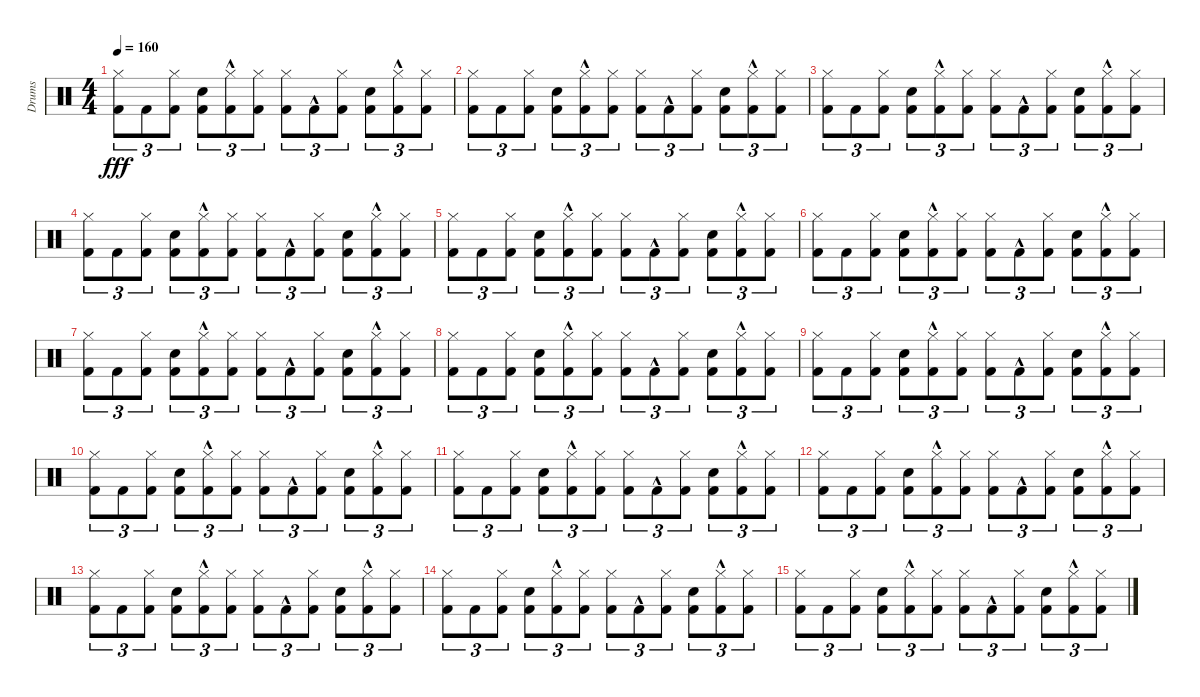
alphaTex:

\track ("Drums" "Drums") {instrument percussion}
\staff {score}
\articulation defaults
\ts (4 4)
\tempo 160
\clef neutral
\ks c
("Kick (hit) 2" "Hi-Hat (closed)").8{tu (3 2) dy fff} "Kick (hit) 2".8{tu (3 2)} ("Kick (hit) 2" "Hi-Hat (closed)").8{tu (3 2)} ("Kick (hit) 2" "Snare (hit) 2").8{tu (3 2)} ("Kick (hit) 2"{hac} "Hi-Hat (closed)"{hac}).8{tu (3 2)} ("Kick (hit) 2" "Hi-Hat (closed)").8{tu (3 2)} ("Kick (hit) 2" "Hi-Hat (closed)").8{tu (3 2)} "Kick (hit) 2"{hac}.8{tu (3 2)} ("Kick (hit) 2" "Hi-Hat (closed)").8{tu (3 2)} ("Kick (hit) 2" "Snare (hit) 2").8{tu (3 2)} ("Kick (hit) 2"{hac} "Hi-Hat (closed)"{hac}).8{tu (3 2)} ("Kick (hit) 2" "Hi-Hat (closed)").8{tu (3 2)} |
("Kick (hit) 2" "Hi-Hat (closed)").8{tu (3 2)} "Kick (hit) 2".8{tu (3 2)} ("Kick (hit) 2" "Hi-Hat (closed)").8{tu (3 2)} ("Kick (hit) 2" "Snare (hit) 2").8{tu (3 2)} ("Kick (hit) 2"{hac} "Hi-Hat (closed)"{hac}).8{tu (3 2)} ("Kick (hit) 2" "Hi-Hat (closed)").8{tu (3 2)} ("Kick (hit) 2" "Hi-Hat (closed)").8{tu (3 2)} "Kick (hit) 2"{hac}.8{tu (3 2)} ("Kick (hit) 2" "Hi-Hat (closed)").8{tu (3 2)} ("Kick (hit) 2" "Snare (hit) 2").8{tu (3 2)} ("Kick (hit) 2"{hac} "Hi-Hat (closed)"{hac}).8{tu (3 2)} ("Kick (hit) 2" "Hi-Hat (closed)").8{tu (3 2)} |
("Kick (hit) 2" "Hi-Hat (closed)").8{tu (3 2)} "Kick (hit) 2".8{tu (3 2)} ("Kick (hit) 2" "Hi-Hat (closed)").8{tu (3 2)} ("Kick (hit) 2" "Snare (hit) 2").8{tu (3 2)} ("Kick (hit) 2"{hac} "Hi-Hat (closed)"{hac}).8{tu (3 2)} ("Kick (hit) 2" "Hi-Hat (closed)").8{tu (3 2)} ("Kick (hit) 2" "Hi-Hat (closed)").8{tu (3 2)} "Kick (hit) 2"{hac}.8{tu (3 2)} ("Kick (hit) 2" "Hi-Hat (closed)").8{tu (3 2)} ("Kick (hit) 2" "Snare (hit) 2").8{tu (3 2)} ("Kick (hit) 2"{hac} "Hi-Hat (closed)"{hac}).8{tu (3 2)} ("Kick (hit) 2" "Hi-Hat (closed)").8{tu (3 2)} |
("Kick (hit) 2" "Hi-Hat (closed)").8{tu (3 2)} "Kick (hit) 2".8{tu (3 2)} ("Kick (hit) 2" "Hi-Hat (closed)").8{tu (3 2)} ("Kick (hit) 2" "Snare (hit) 2").8{tu (3 2)} ("Kick (hit) 2"{hac} "Hi-Hat (closed)"{hac}).8{tu (3 2)} ("Kick (hit) 2" "Hi-Hat (closed)").8{tu (3 2)} ("Kick (hit) 2" "Hi-Hat (closed)").8{tu (3 2)} "Kick (hit) 2"{hac}.8{tu (3 2)} ("Kick (hit) 2" "Hi-Hat (closed)").8{tu (3 2)} ("Kick (hit) 2" "Snare (hit) 2").8{tu (3 2)} ("Kick (hit) 2"{hac} "Hi-Hat (closed)"{hac}).8{tu (3 2)} ("Kick (hit) 2" "Hi-Hat (closed)").8{tu (3 2)} |
("Kick (hit) 2" "Hi-Hat (closed)").8{tu (3 2)} "Kick (hit) 2".8{tu (3 2)} ("Kick (hit) 2" "Hi-Hat (closed)").8{tu (3 2)} ("Kick (hit) 2" "Snare (hit) 2").8{tu (3 2)} ("Kick (hit) 2"{hac} "Hi-Hat (closed)"{hac}).8{tu (3 2)} ("Kick (hit) 2" "Hi-Hat (closed)").8{tu (3 2)} ("Kick (hit) 2" "Hi-Hat (closed)").8{tu (3 2)} "Kick (hit) 2"{hac}.8{tu (3 2)} ("Kick (hit) 2" "Hi-Hat (closed)").8{tu (3 2)} ("Kick (hit) 2" "Snare (hit) 2").8{tu (3 2)} ("Kick (hit) 2"{hac} "Hi-Hat (closed)"{hac}).8{tu (3 2)} ("Kick (hit) 2" "Hi-Hat (closed)").8{tu (3 2)} |
("Kick (hit) 2" "Hi-Hat (closed)").8{tu (3 2)} "Kick (hit) 2".8{tu (3 2)} ("Kick (hit) 2" "Hi-Hat (closed)").8{tu (3 2)} ("Kick (hit) 2" "Snare (hit) 2").8{tu (3 2)} ("Kick (hit) 2"{hac} "Hi-Hat (closed)"{hac}).8{tu (3 2)} ("Kick (hit) 2" "Hi-Hat (closed)").8{tu (3 2)} ("Kick (hit) 2" "Hi-Hat (closed)").8{tu (3 2)} "Kick (hit) 2"{hac}.8{tu (3 2)} ("Kick (hit) 2" "Hi-Hat (closed)").8{tu (3 2)} ("Kick (hit) 2" "Snare (hit) 2").8{tu (3 2)} ("Kick (hit) 2"{hac} "Hi-Hat (closed)"{hac}).8{tu (3 2)} ("Kick (hit) 2" "Hi-Hat (closed)").8{tu (3 2)} |
("Kick (hit) 2" "Hi-Hat (closed)").8{tu (3 2)} "Kick (hit) 2".8{tu (3 2)} ("Kick (hit) 2" "Hi-Hat (closed)").8{tu (3 2)} ("Kick (hit) 2" "Snare (hit) 2").8{tu (3 2)} ("Kick (hit) 2"{hac} "Hi-Hat (closed)"{hac}).8{tu (3 2)} ("Kick (hit) 2" "Hi-Hat (closed)").8{tu (3 2)} ("Kick (hit) 2" "Hi-Hat (closed)").8{tu (3 2)} "Kick (hit) 2"{hac}.8{tu (3 2)} ("Kick (hit) 2" "Hi-Hat (closed)").8{tu (3 2)} ("Kick (hit) 2" "Snare (hit) 2").8{tu (3 2)} ("Kick (hit) 2"{hac} "Hi-Hat (closed)"{hac}).8{tu (3 2)} ("Kick (hit) 2" "Hi-Hat (closed)").8{tu (3 2)} |
("Kick (hit) 2" "Hi-Hat (closed)").8{tu (3 2)} "Kick (hit) 2".8{tu (3 2)} ("Kick (hit) 2" "Hi-Hat (closed)").8{tu (3 2)} ("Kick (hit) 2" "Snare (hit) 2").8{tu (3 2)} ("Kick (hit) 2"{hac} "Hi-Hat (closed)"{hac}).8{tu (3 2)} ("Kick (hit) 2" "Hi-Hat (closed)").8{tu (3 2)} ("Kick (hit) 2" "Hi-Hat (closed)").8{tu (3 2)} "Kick (hit) 2"{hac}.8{tu (3 2)} ("Kick (hit) 2" "Hi-Hat (closed)").8{tu (3 2)} ("Kick (hit) 2" "Snare (hit) 2").8{tu (3 2)} ("Kick (hit) 2"{hac} "Hi-Hat (closed)"{hac}).8{tu (3 2)} ("Kick (hit) 2" "Hi-Hat (closed)").8{tu (3 2)} |
("Kick (hit) 2" "Hi-Hat (closed)").8{tu (3 2)} "Kick (hit) 2".8{tu (3 2)} ("Kick (hit) 2" "Hi-Hat (closed)").8{tu (3 2)} ("Kick (hit) 2" "Snare (hit) 2").8{tu (3 2)} ("Kick (hit) 2"{hac} "Hi-Hat (closed)"{hac}).8{tu (3 2)} ("Kick (hit) 2" "Hi-Hat (closed)").8{tu (3 2)} ("Kick (hit) 2" "Hi-Hat (closed)").8{tu (3 2)} "Kick (hit) 2"{hac}.8{tu (3 2)} ("Kick (hit) 2" "Hi-Hat (closed)").8{tu (3 2)} ("Kick (hit) 2" "Snare (hit) 2").8{tu (3 2)} ("Kick (hit) 2"{hac} "Hi-Hat (closed)"{hac}).8{tu (3 2)} ("Kick (hit) 2" "Hi-Hat (closed)").8{tu (3 2)} |
("Kick (hit) 2" "Hi-Hat (closed)").8{tu (3 2)} "Kick (hit) 2".8{tu (3 2)} ("Kick (hit) 2" "Hi-Hat (closed)").8{tu (3 2)} ("Kick (hit) 2" "Snare (hit) 2").8{tu (3 2)} ("Kick (hit) 2"{hac} "Hi-Hat (closed)"{hac}).8{tu (3 2)} ("Kick (hit) 2" "Hi-Hat (closed)").8{tu (3 2)} ("Kick (hit) 2" "Hi-Hat (closed)").8{tu (3 2)} "Kick (hit) 2"{hac}.8{tu (3 2)} ("Kick (hit) 2" "Hi-Hat (closed)").8{tu (3 2)} ("Kick (hit) 2" "Snare (hit) 2").8{tu (3 2)} ("Kick (hit) 2"{hac} "Hi-Hat (closed)"{hac}).8{tu (3 2)} ("Kick (hit) 2" "Hi-Hat (closed)").8{tu (3 2)} |
("Kick (hit) 2" "Hi-Hat (closed)").8{tu (3 2)} "Kick (hit) 2".8{tu (3 2)} ("Kick (hit) 2" "Hi-Hat (closed)").8{tu (3 2)} ("Kick (hit) 2" "Snare (hit) 2").8{tu (3 2)} ("Kick (hit) 2"{hac} "Hi-Hat (closed)"{hac}).8{tu (3 2)} ("Kick (hit) 2" "Hi-Hat (closed)").8{tu (3 2)} ("Kick (hit) 2" "Hi-Hat (closed)").8{tu (3 2)} "Kick (hit) 2"{hac}.8{tu (3 2)} ("Kick (hit) 2" "Hi-Hat (closed)").8{tu (3 2)} ("Kick (hit) 2" "Snare (hit) 2").8{tu (3 2)} ("Kick (hit) 2"{hac} "Hi-Hat (closed)"{hac}).8{tu (3 2)} ("Kick (hit) 2" "Hi-Hat (closed)").8{tu (3 2)} |
("Kick (hit) 2" "Hi-Hat (closed)").8{tu (3 2) volume 0} "Kick (hit) 2".8{tu (3 2)} ("Kick (hit) 2" "Hi-Hat (closed)").8{tu (3 2)} ("Kick (hit) 2" "Snare (hit) 2").8{tu (3 2)} ("Kick (hit) 2"{hac} "Hi-Hat (closed)"{hac}).8{tu (3 2)} ("Kick (hit) 2" "Hi-Hat (closed)").8{tu (3 2)} ("Kick (hit) 2" "Hi-Hat (closed)").8{tu (3 2)} "Kick (hit) 2"{hac}.8{tu (3 2)} ("Kick (hit) 2" "Hi-Hat (closed)").8{tu (3 2)} ("Kick (hit) 2" "Snare (hit) 2").8{tu (3 2)} ("Kick (hit) 2"{hac} "Hi-Hat (closed)"{hac}).8{tu (3 2)} ("Kick (hit) 2" "Hi-Hat (closed)").8{tu (3 2)} |
("Kick (hit) 2" "Hi-Hat (closed)").8{tu (3 2)} "Kick (hit) 2".8{tu (3 2)} ("Kick (hit) 2" "Hi-Hat (closed)").8{tu (3 2)} ("Kick (hit) 2" "Snare (hit) 2").8{tu (3 2)} ("Kick (hit) 2"{hac} "Hi-Hat (closed)"{hac}).8{tu (3 2)} ("Kick (hit) 2" "Hi-Hat (closed)").8{tu (3 2)} ("Kick (hit) 2" "Hi-Hat (closed)").8{tu (3 2)} "Kick (hit) 2"{hac}.8{tu (3 2)} ("Kick (hit) 2" "Hi-Hat (closed)").8{tu (3 2)} ("Kick (hit) 2" "Snare (hit) 2").8{tu (3 2)} ("Kick (hit) 2"{hac} "Hi-Hat (closed)"{hac}).8{tu (3 2)} ("Kick (hit) 2" "Hi-Hat (closed)").8{tu (3 2)} |
("Kick (hit) 2" "Hi-Hat (closed)").8{tu (3 2)} "Kick (hit) 2".8{tu (3 2)} ("Kick (hit) 2" "Hi-Hat (closed)").8{tu (3 2)} ("Kick (hit) 2" "Snare (hit) 2").8{tu (3 2)} ("Kick (hit) 2"{hac} "Hi-Hat (closed)"{hac}).8{tu (3 2)} ("Kick (hit) 2" "Hi-Hat (closed)").8{tu (3 2)} ("Kick (hit) 2" "Hi-Hat (closed)").8{tu (3 2)} "Kick (hit) 2"{hac}.8{tu (3 2)} ("Kick (hit) 2" "Hi-Hat (closed)").8{tu (3 2)} ("Kick (hit) 2" "Snare (hit) 2").8{tu (3 2)} ("Kick (hit) 2"{hac} "Hi-Hat (closed)"{hac}).8{tu (3 2)} ("Kick (hit) 2" "Hi-Hat (closed)").8{tu (3 2)} |
("Kick (hit) 2" "Hi-Hat (closed)").8{tu (3 2)} "Kick (hit) 2".8{tu (3 2)} ("Kick (hit) 2" "Hi-Hat (closed)").8{tu (3 2)} ("Kick (hit) 2" "Snare (hit) 2").8{tu (3 2)} ("Kick (hit) 2"{hac} "Hi-Hat (closed)"{hac}).8{tu (3 2)} ("Kick (hit) 2" "Hi-Hat (closed)").8{tu (3 2)} ("Kick (hit) 2" "Hi-Hat (closed)").8{tu (3 2)} "Kick (hit) 2"{hac}.8{tu (3 2)} ("Kick (hit) 2" "Hi-Hat (closed)").8{tu (3 2)} ("Kick (hit) 2" "Snare (hit) 2").8{tu (3 2)} ("Kick (hit) 2"{hac} "Hi-Hat (closed)"{hac}).8{tu (3 2)} ("Kick (hit) 2" "Hi-Hat (closed)").8{tu (3 2)}
